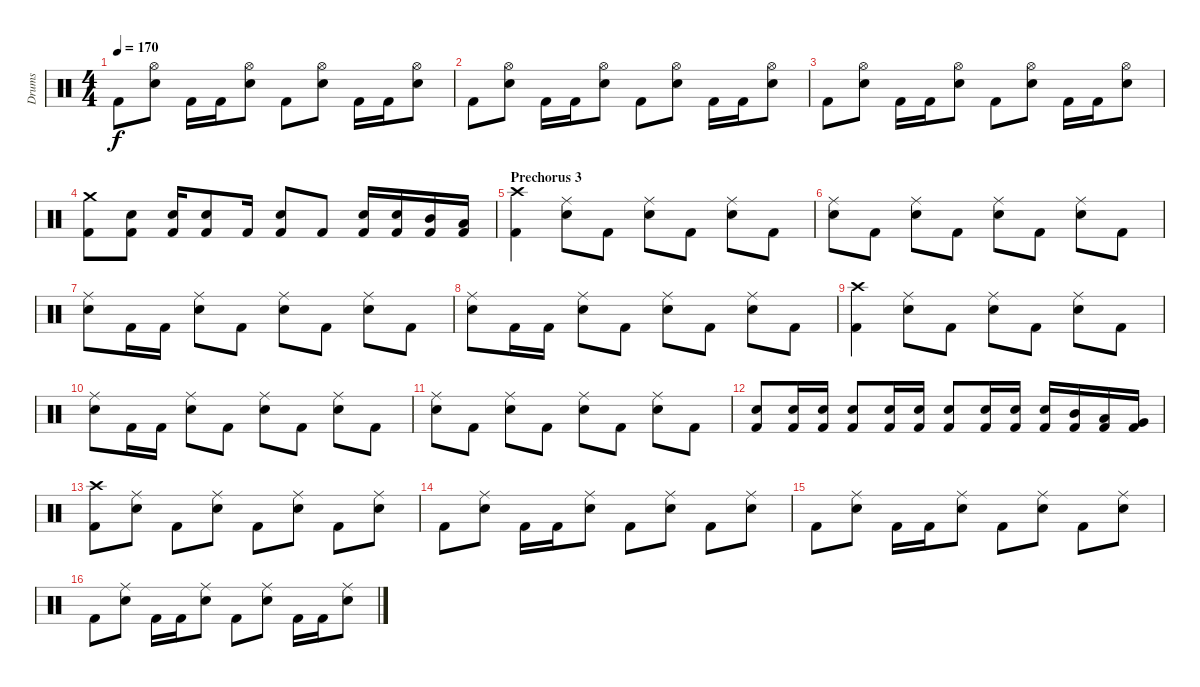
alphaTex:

\track ("Drums" "Drums") {instrument percussion}
\staff {score}
\articulation defaults
\ts (4 4)
\tempo 170
\clef neutral
\ks c "Kick (hit) 2".8{dy f}
("Hi-Hat (open)" "Snare (hit) 2").8 "Kick (hit) 2".16 "Kick (hit) 2".16 ("Hi-Hat (open)" "Snare (hit) 2").8 "Kick (hit) 2".8 ("Hi-Hat (open)" "Snare (hit) 2").8 "Kick (hit) 2".16 "Kick (hit) 2".16 ("Hi-Hat (open)" "Snare (hit) 2").8 |
"Kick (hit) 2".8 ("Hi-Hat (open)" "Snare (hit) 2").8 "Kick (hit) 2".16 "Kick (hit) 2".16 ("Hi-Hat (open)" "Snare (hit) 2").8 "Kick (hit) 2".8 ("Hi-Hat (open)" "Snare (hit) 2").8 "Kick (hit) 2".16 "Kick (hit) 2".16 ("Hi-Hat (open)" "Snare (hit) 2").8 |
"Kick (hit) 2".8 ("Hi-Hat (open)" "Snare (hit) 2").8 "Kick (hit) 2".16 "Kick (hit) 2".16 ("Hi-Hat (open)" "Snare (hit) 2").8 "Kick (hit) 2".8 ("Hi-Hat (open)" "Snare (hit) 2").8 "Kick (hit) 2".16 "Kick (hit) 2".16 ("Hi-Hat (open)" "Snare (hit) 2").8 |
("Crash medium (hit)" "Kick (hit) 2").8 ("Snare (hit) 2" "Kick (hit) 2").8 ("Snare (hit) 2" "Kick (hit) 2").16 ("Snare (hit) 2" "Kick (hit) 2").8 "Kick (hit) 2".16 ("Snare (hit) 2" "Kick (hit) 2").8 "Kick (hit) 2".8 ("Snare (hit) 2" "Kick (hit) 2").16 ("Snare (hit) 2" "Kick (hit) 2").16 ("Mid Tom (hit)" "Kick (hit) 2").16 ("Low Tom (hit)" "Kick (hit) 2").16 |
\section ("" "Prechorus 3")
("Crash high (hit)" "Kick (hit) 2").4 ("Ride (middle)" "Snare (hit) 2").8 "Kick (hit) 2".8 ("Ride (middle)" "Snare (hit) 2").8 "Kick (hit) 2".8 ("Ride (middle)" "Snare (hit) 2").8 "Kick (hit) 2".8 |
("Ride (middle)" "Snare (hit) 2").8 "Kick (hit) 2".8 ("Ride (middle)" "Snare (hit) 2").8 "Kick (hit) 2".8 ("Ride (middle)" "Snare (hit) 2").8 "Kick (hit) 2".8 ("Ride (middle)" "Snare (hit) 2").8 "Kick (hit) 2".8 |
("Ride (middle)" "Snare (hit) 2").8 "Kick (hit) 2".16 "Kick (hit) 2".16 ("Ride (middle)" "Snare (hit) 2").8 "Kick (hit) 2".8 ("Ride (middle)" "Snare (hit) 2").8 "Kick (hit) 2".8 ("Ride (middle)" "Snare (hit) 2").8 "Kick (hit) 2".8 |
("Ride (middle)" "Snare (hit) 2").8 "Kick (hit) 2".16 "Kick (hit) 2".16 ("Ride (middle)" "Snare (hit) 2").8 "Kick (hit) 2".8 ("Ride (middle)" "Snare (hit) 2").8 "Kick (hit) 2".8 ("Ride (middle)" "Snare (hit) 2").8 "Kick (hit) 2".8 |
("Crash high (hit)" "Kick (hit) 2").4 ("Ride (middle)" "Snare (hit) 2").8 "Kick (hit) 2".8 ("Ride (middle)" "Snare (hit) 2").8 "Kick (hit) 2".8 ("Ride (middle)" "Snare (hit) 2").8 "Kick (hit) 2".8 |
("Ride (middle)" "Snare (hit) 2").8 "Kick (hit) 2".16 "Kick (hit) 2".16 ("Ride (middle)" "Snare (hit) 2").8 "Kick (hit) 2".8 ("Ride (middle)" "Snare (hit) 2").8 "Kick (hit) 2".8 ("Ride (middle)" "Snare (hit) 2").8 "Kick (hit) 2".8 |
("Ride (middle)" "Snare (hit) 2").8 "Kick (hit) 2".8 ("Ride (middle)" "Snare (hit) 2").8 "Kick (hit) 2".8 ("Ride (middle)" "Snare (hit) 2").8 "Kick (hit) 2".8 ("Ride (middle)" "Snare (hit) 2").8 "Kick (hit) 2".8 |
("Snare (hit) 2" "Kick (hit) 2").8 ("Snare (hit) 2" "Kick (hit) 2").16 ("Snare (hit) 2" "Kick (hit) 2").16 ("Snare (hit) 2" "Kick (hit) 2").8 ("Snare (hit) 2" "Kick (hit) 2").16 ("Snare (hit) 2" "Kick (hit) 2").16 ("Snare (hit) 2" "Kick (hit) 2").8 ("Snare (hit) 2" "Kick (hit) 2").16 ("Snare (hit) 2" "Kick (hit) 2").16 ("Snare (hit) 2" "Kick (hit) 2").16 ("Mid Tom (hit)" "Kick (hit) 2").16 ("Low Tom (hit)" "Kick (hit) 2").16 ("Very Low Tom (hit)" "Kick (hit) 2").16 |
("Crash high (hit)" "Kick (hit) 2").8 ("Ride (middle)" "Snare (hit) 2").8 "Kick (hit) 2".8 ("Ride (middle)" "Snare (hit) 2").8 "Kick (hit) 2".8 ("Ride (middle)" "Snare (hit) 2").8 "Kick (hit) 2".8 ("Ride (middle)" "Snare (hit) 2").8 |
"Kick (hit) 2".8 ("Ride (middle)" "Snare (hit) 2").8 "Kick (hit) 2".16 "Kick (hit) 2".16 ("Ride (middle)" "Snare (hit) 2").8 "Kick (hit) 2".8 ("Ride (middle)" "Snare (hit) 2").8 "Kick (hit) 2".8 ("Ride (middle)" "Snare (hit) 2").8 |
"Kick (hit) 2".8 ("Ride (middle)" "Snare (hit) 2").8 "Kick (hit) 2".16 "Kick (hit) 2".16 ("Ride (middle)" "Snare (hit) 2").8 "Kick (hit) 2".8 ("Ride (middle)" "Snare (hit) 2").8 "Kick (hit) 2".8 ("Ride (middle)" "Snare (hit) 2").8 |
"Kick (hit) 2".8 ("Ride (middle)" "Snare (hit) 2").8 "Kick (hit) 2".16 "Kick (hit) 2".16 ("Ride (middle)" "Snare (hit) 2").8 "Kick (hit) 2".8 ("Ride (middle)" "Snare (hit) 2").8 "Kick (hit) 2".16 "Kick (hit) 2".16 ("Ride (middle)" "Snare (hit) 2").8
